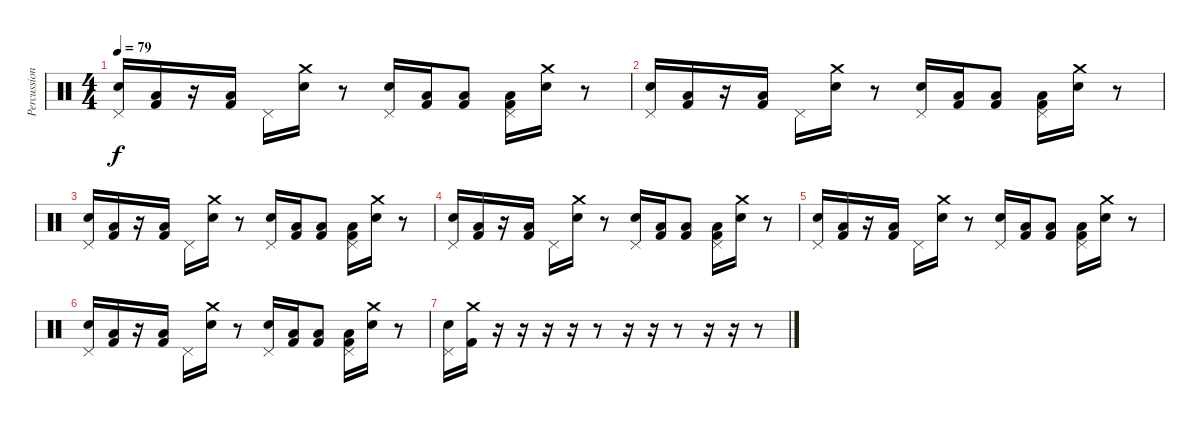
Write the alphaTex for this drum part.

\track ("Percussion" "Percussion") {instrument percussion}
\staff {score}
\articulation defaults
\ts (4 4)
\tempo 79
\clef neutral
\ks c
("Pedal Hi-Hat (hit)" "Electric Snare (hit)").16{dy f} ("Low Floor Tom (hit)" "Kick (hit) 2").16 r.16 ("Low Floor Tom (hit)" "Kick (hit) 2").16 "Pedal Hi-Hat (hit)".16 ("Crash medium (hit)" "Electric Snare (hit)").16 r.8 ("Pedal Hi-Hat (hit)" "Electric Snare (hit)").16 ("Low Floor Tom (hit)" "Kick (hit) 2").16 ("Low Floor Tom (hit)" "Kick (hit) 2").8 ("Pedal Hi-Hat (hit)" "Low Floor Tom (hit)" "Kick (hit) 2").16 ("Crash medium (hit)" "Electric Snare (hit)").16 r.8 |
("Pedal Hi-Hat (hit)" "Electric Snare (hit)").16 ("Low Floor Tom (hit)" "Kick (hit) 2").16 r.16 ("Low Floor Tom (hit)" "Kick (hit) 2").16 "Pedal Hi-Hat (hit)".16 ("Crash medium (hit)" "Electric Snare (hit)").16 r.8 ("Pedal Hi-Hat (hit)" "Electric Snare (hit)").16 ("Low Floor Tom (hit)" "Kick (hit) 2").16 ("Low Floor Tom (hit)" "Kick (hit) 2").8 ("Pedal Hi-Hat (hit)" "Low Floor Tom (hit)" "Kick (hit) 2").16 ("Crash medium (hit)" "Electric Snare (hit)").16 r.8 |
("Pedal Hi-Hat (hit)" "Electric Snare (hit)").16 ("Low Floor Tom (hit)" "Kick (hit) 2").16 r.16 ("Low Floor Tom (hit)" "Kick (hit) 2").16 "Pedal Hi-Hat (hit)".16 ("Crash medium (hit)" "Electric Snare (hit)").16 r.8 ("Pedal Hi-Hat (hit)" "Electric Snare (hit)").16 ("Low Floor Tom (hit)" "Kick (hit) 2").16 ("Low Floor Tom (hit)" "Kick (hit) 2").8 ("Pedal Hi-Hat (hit)" "Low Floor Tom (hit)" "Kick (hit) 2").16 ("Crash medium (hit)" "Electric Snare (hit)").16 r.8 |
("Pedal Hi-Hat (hit)" "Electric Snare (hit)").16 ("Low Floor Tom (hit)" "Kick (hit) 2").16 r.16 ("Low Floor Tom (hit)" "Kick (hit) 2").16 "Pedal Hi-Hat (hit)".16 ("Crash medium (hit)" "Electric Snare (hit)").16 r.8 ("Pedal Hi-Hat (hit)" "Electric Snare (hit)").16 ("Low Floor Tom (hit)" "Kick (hit) 2").16 ("Low Floor Tom (hit)" "Kick (hit) 2").8 ("Pedal Hi-Hat (hit)" "Low Floor Tom (hit)" "Kick (hit) 2").16 ("Crash medium (hit)" "Electric Snare (hit)").16 r.8 |
("Pedal Hi-Hat (hit)" "Electric Snare (hit)").16 ("Low Floor Tom (hit)" "Kick (hit) 2").16 r.16 ("Low Floor Tom (hit)" "Kick (hit) 2").16 "Pedal Hi-Hat (hit)".16 ("Crash medium (hit)" "Electric Snare (hit)").16 r.8 ("Pedal Hi-Hat (hit)" "Electric Snare (hit)").16 ("Low Floor Tom (hit)" "Kick (hit) 2").16 ("Low Floor Tom (hit)" "Kick (hit) 2").8 ("Pedal Hi-Hat (hit)" "Low Floor Tom (hit)" "Kick (hit) 2").16 ("Crash medium (hit)" "Electric Snare (hit)").16 r.8 |
("Pedal Hi-Hat (hit)" "Electric Snare (hit)").16 ("Low Floor Tom (hit)" "Kick (hit) 2").16 r.16 ("Low Floor Tom (hit)" "Kick (hit) 2").16 "Pedal Hi-Hat (hit)".16 ("Crash medium (hit)" "Electric Snare (hit)").16 r.8 ("Pedal Hi-Hat (hit)" "Electric Snare (hit)").16 ("Low Floor Tom (hit)" "Kick (hit) 2").16 ("Low Floor Tom (hit)" "Kick (hit) 2").8 ("Pedal Hi-Hat (hit)" "Low Floor Tom (hit)" "Kick (hit) 2").16 ("Crash medium (hit)" "Electric Snare (hit)").16 r.8 |
("Pedal Hi-Hat (hit)" "Electric Snare (hit)").16 ("Crash medium (hit)" "Kick (hit) 2").16 r.16 r.16 r.16 r.16 r.8 r.16 r.16 r.8 r.16 r.16 r.8
